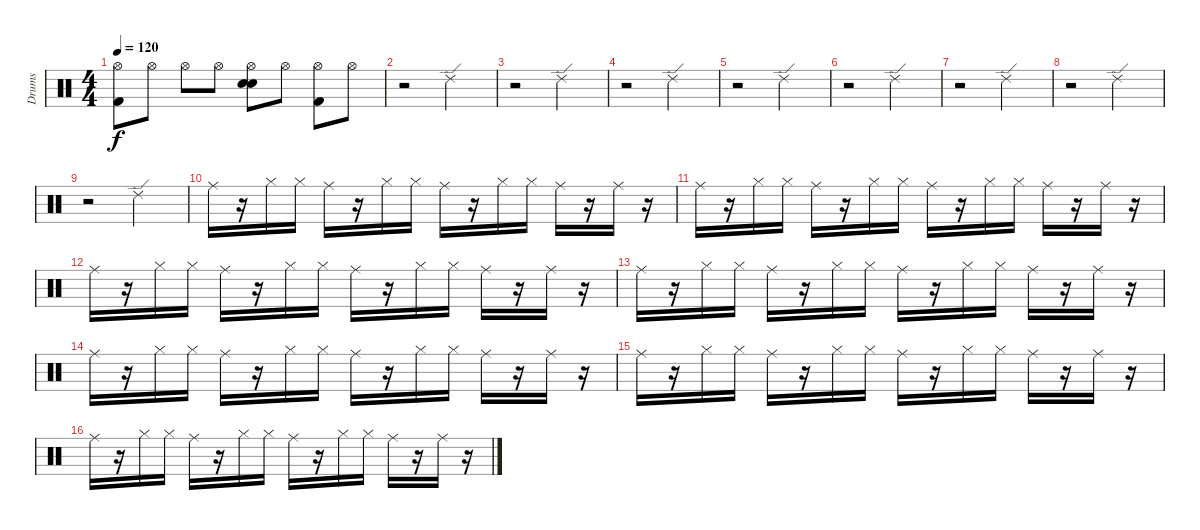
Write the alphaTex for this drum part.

\track ("Drums" "Drums") {instrument percussion}
\staff {score}
\articulation defaults
\ts (4 4)
\tempo 120
\clef neutral
\ks c
("Hi-Hat (open)" "Kick (hit) 2").8{dy f} "Hi-Hat (open)".8 "Hi-Hat (open)".8 "Hi-Hat (open)".8 ("Hi-Hat (open)" "Snare (hit) 2" "Electric Snare (hit)").8 "Hi-Hat (open)".8 ("Hi-Hat (open)" "Kick (hit) 2").8 "Hi-Hat (open)".8 |
r.2 "Ride (edge) 2".2 |
r.2 "Ride (edge) 2".2 |
r.2 "Ride (edge) 2".2 |
r.2 "Ride (edge) 2".2 |
r.2 "Ride (edge) 2".2 |
r.2 "Ride (edge) 2".2 |
r.2 "Ride (edge) 2".2 |
r.2 "Ride (edge) 2".2 |
"Ride (middle)".16 r.16 "Hi-Hat (closed)".16 "Hi-Hat (closed)".16 "Ride (middle)".16 r.16 "Hi-Hat (closed)".16 "Hi-Hat (closed)".16 "Ride (middle)".16 r.16 "Hi-Hat (closed)".16 "Hi-Hat (closed)".16 "Ride (middle)".16 r.16 "Ride (middle)".16 r.16 |
"Ride (middle)".16 r.16 "Hi-Hat (closed)".16 "Hi-Hat (closed)".16 "Ride (middle)".16 r.16 "Hi-Hat (closed)".16 "Hi-Hat (closed)".16 "Ride (middle)".16 r.16 "Hi-Hat (closed)".16 "Hi-Hat (closed)".16 "Ride (middle)".16 r.16 "Ride (middle)".16 r.16 |
"Ride (middle)".16 r.16 "Hi-Hat (closed)".16 "Hi-Hat (closed)".16 "Ride (middle)".16 r.16 "Hi-Hat (closed)".16 "Hi-Hat (closed)".16 "Ride (middle)".16 r.16 "Hi-Hat (closed)".16 "Hi-Hat (closed)".16 "Ride (middle)".16 r.16 "Ride (middle)".16 r.16 |
"Ride (middle)".16 r.16 "Hi-Hat (closed)".16 "Hi-Hat (closed)".16 "Ride (middle)".16 r.16 "Hi-Hat (closed)".16 "Hi-Hat (closed)".16 "Ride (middle)".16 r.16 "Hi-Hat (closed)".16 "Hi-Hat (closed)".16 "Ride (middle)".16 r.16 "Ride (middle)".16 r.16 |
"Ride (middle)".16 r.16 "Hi-Hat (closed)".16 "Hi-Hat (closed)".16 "Ride (middle)".16 r.16 "Hi-Hat (closed)".16 "Hi-Hat (closed)".16 "Ride (middle)".16 r.16 "Hi-Hat (closed)".16 "Hi-Hat (closed)".16 "Ride (middle)".16 r.16 "Ride (middle)".16 r.16 |
"Ride (middle)".16 r.16 "Hi-Hat (closed)".16 "Hi-Hat (closed)".16 "Ride (middle)".16 r.16 "Hi-Hat (closed)".16 "Hi-Hat (closed)".16 "Ride (middle)".16 r.16 "Hi-Hat (closed)".16 "Hi-Hat (closed)".16 "Ride (middle)".16 r.16 "Ride (middle)".16 r.16 |
"Ride (middle)".16 r.16 "Hi-Hat (closed)".16 "Hi-Hat (closed)".16 "Ride (middle)".16 r.16 "Hi-Hat (closed)".16 "Hi-Hat (closed)".16 "Ride (middle)".16 r.16 "Hi-Hat (closed)".16 "Hi-Hat (closed)".16 "Ride (middle)".16 r.16 "Ride (middle)".16 r.16
